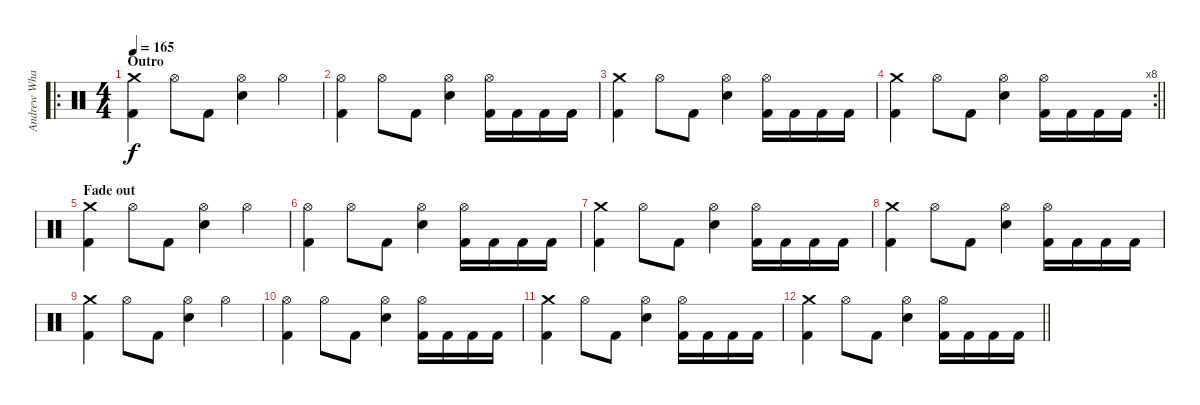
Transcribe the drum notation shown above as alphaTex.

\track ("Andrew Whale" "Andrew Wha") {instrument percussion}
\staff {score}
\articulation defaults
\ro
\ts (4 4)
\section ("" "Outro")
\tempo 165
\clef neutral
\ks c
("Crash medium (hit)" "Kick (hit) 2").4{dy f} "Hi-Hat (open)".8 "Kick (hit) 2".8 ("Hi-Hat (open)" "Snare (hit) 2").4 "Hi-Hat (open)".4 |
("Hi-Hat (open)" "Kick (hit) 2").4 "Hi-Hat (open)".8 "Kick (hit) 2".8 ("Hi-Hat (open)" "Snare (hit) 2").4 ("Hi-Hat (open)" "Kick (hit) 2").16 "Kick (hit) 2".16 "Kick (hit) 2".16 "Kick (hit) 2".16 |
("Crash medium (hit)" "Kick (hit) 2").4 "Hi-Hat (open)".8 "Kick (hit) 2".8 ("Hi-Hat (open)" "Snare (hit) 2").4 ("Hi-Hat (open)" "Kick (hit) 2").16 "Kick (hit) 2".16 "Kick (hit) 2".16 "Kick (hit) 2".16 |
\rc 8
\barLineRight lightlight
("Crash medium (hit)" "Kick (hit) 2").4 "Hi-Hat (open)".8 "Kick (hit) 2".8 ("Hi-Hat (open)" "Snare (hit) 2").4 ("Hi-Hat (open)" "Kick (hit) 2").16 "Kick (hit) 2".16 "Kick (hit) 2".16 "Kick (hit) 2".16 |
\section ("" "Fade out")
("Crash medium (hit)" "Kick (hit) 2").4 "Hi-Hat (open)".8 "Kick (hit) 2".8 ("Hi-Hat (open)" "Snare (hit) 2").4 "Hi-Hat (open)".4 |
("Hi-Hat (open)" "Kick (hit) 2").4 "Hi-Hat (open)".8 "Kick (hit) 2".8 ("Hi-Hat (open)" "Snare (hit) 2").4 ("Hi-Hat (open)" "Kick (hit) 2").16 "Kick (hit) 2".16 "Kick (hit) 2".16 "Kick (hit) 2".16 |
("Crash medium (hit)" "Kick (hit) 2").4 "Hi-Hat (open)".8 "Kick (hit) 2".8 ("Hi-Hat (open)" "Snare (hit) 2").4 ("Hi-Hat (open)" "Kick (hit) 2").16 "Kick (hit) 2".16 "Kick (hit) 2".16 "Kick (hit) 2".16 |
("Crash medium (hit)" "Kick (hit) 2").4 "Hi-Hat (open)".8 "Kick (hit) 2".8 ("Hi-Hat (open)" "Snare (hit) 2").4 ("Hi-Hat (open)" "Kick (hit) 2").16 "Kick (hit) 2".16 "Kick (hit) 2".16 "Kick (hit) 2".16 |
("Crash medium (hit)" "Kick (hit) 2").4 "Hi-Hat (open)".8 "Kick (hit) 2".8 ("Hi-Hat (open)" "Snare (hit) 2").4 "Hi-Hat (open)".4 |
("Hi-Hat (open)" "Kick (hit) 2").4 "Hi-Hat (open)".8 "Kick (hit) 2".8 ("Hi-Hat (open)" "Snare (hit) 2").4 ("Hi-Hat (open)" "Kick (hit) 2").16 "Kick (hit) 2".16 "Kick (hit) 2".16 "Kick (hit) 2".16 |
("Crash medium (hit)" "Kick (hit) 2").4 "Hi-Hat (open)".8 "Kick (hit) 2".8 ("Hi-Hat (open)" "Snare (hit) 2").4 ("Hi-Hat (open)" "Kick (hit) 2").16 "Kick (hit) 2".16 "Kick (hit) 2".16 "Kick (hit) 2".16 |
\barLineRight lightlight
("Crash medium (hit)" "Kick (hit) 2").4 "Hi-Hat (open)".8 "Kick (hit) 2".8 ("Hi-Hat (open)" "Snare (hit) 2").4 ("Hi-Hat (open)" "Kick (hit) 2").16 "Kick (hit) 2".16 "Kick (hit) 2".16 "Kick (hit) 2".16
